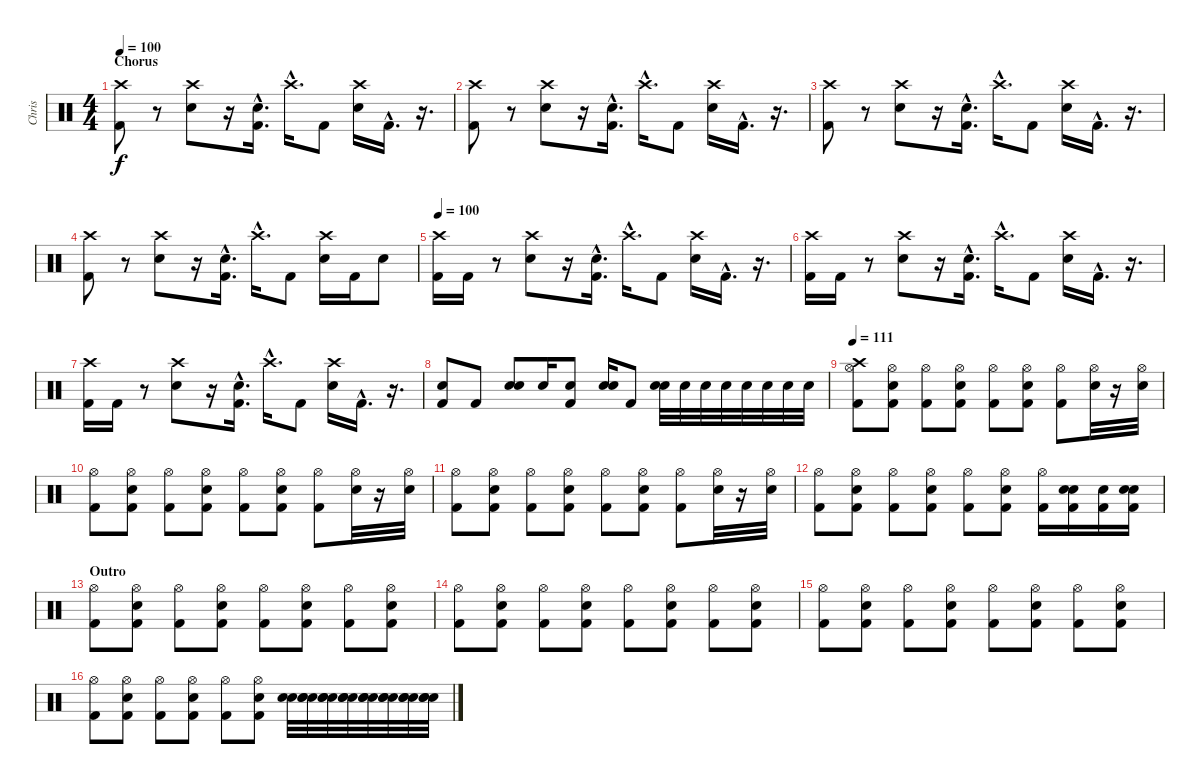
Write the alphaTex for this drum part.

\track ("Chris" "Chris") {instrument percussion}
\staff {score}
\articulation defaults
\ts (4 4)
\section ("" "Chorus")
\tempo 100
\clef neutral
\ks c
("Crash high (hit)" "Kick (hit) 2").8{dy f} r.8 ("Crash high (hit)" "Snare (hit) 2").8 r.16 ("Snare (hit)"{hac} "Kick (hit) 2"{hac}).16{d} "Crash high (hit)"{hac}.16{d} "Kick (hit) 2".8 ("Crash high (hit)" "Snare (hit) 2").16 "Kick (hit) 2"{hac}.16{d} r.16{d} |
("Crash high (hit)" "Kick (hit) 2").8 r.8 ("Crash high (hit)" "Snare (hit) 2").8 r.16 ("Snare (hit)"{hac} "Kick (hit) 2"{hac}).16{d} "Crash high (hit)"{hac}.16{d} "Kick (hit) 2".8 ("Crash high (hit)" "Snare (hit) 2").16 "Kick (hit) 2"{hac}.16{d} r.16{d} |
("Crash high (hit)" "Kick (hit) 2").8 r.8 ("Crash high (hit)" "Snare (hit) 2").8 r.16 ("Snare (hit)"{hac} "Kick (hit) 2"{hac}).16{d} "Crash high (hit)"{hac}.16{d} "Kick (hit) 2".8 ("Crash high (hit)" "Snare (hit) 2").16 "Kick (hit) 2"{hac}.16{d} r.16{d} |
("Crash high (hit)" "Kick (hit) 2").8 r.8 ("Crash high (hit)" "Snare (hit) 2").8 r.16 ("Snare (hit)"{hac} "Kick (hit) 2"{hac}).16{d} "Crash high (hit)"{hac}.16{d} "Kick (hit) 2".8 ("Crash high (hit)" "Snare (hit) 2").16 "Kick (hit) 2".16 "Snare (hit) 2".8 |
\tempo 100
("Crash high (hit)" "Kick (hit) 2").16 "Kick (hit) 2".16 r.8 ("Crash high (hit)" "Snare (hit) 2").8 r.16 ("Snare (hit)"{hac} "Kick (hit) 2"{hac}).16{d} "Crash high (hit)"{hac}.16{d} "Kick (hit) 2".8 ("Crash high (hit)" "Snare (hit) 2").16 "Kick (hit) 2"{hac}.16{d} r.16{d} |
("Crash high (hit)" "Kick (hit) 2").16 "Kick (hit) 2".16 r.8 ("Crash high (hit)" "Snare (hit) 2").8 r.16 ("Snare (hit)"{hac} "Kick (hit) 2"{hac}).16{d} "Crash high (hit)"{hac}.16{d} "Kick (hit) 2".8 ("Crash high (hit)" "Snare (hit) 2").16 "Kick (hit) 2"{hac}.16{d} r.16{d} |
("Crash high (hit)" "Kick (hit) 2").16 "Kick (hit) 2".16 r.8 ("Crash high (hit)" "Snare (hit) 2").8 r.16 ("Snare (hit)"{hac} "Kick (hit) 2"{hac}).16{d} "Crash high (hit)"{hac}.16{d} "Kick (hit) 2".8 ("Crash high (hit)" "Snare (hit) 2").16 "Kick (hit) 2"{hac}.16{d} r.16{d} |
("Snare (hit)" "Kick (hit) 2").8 "Kick (hit) 2".8 ("Snare (hit)" "Snare (hit) 2").8 "Snare (hit) 2".16 ("Snare (hit)" "Kick (hit) 2").8 ("Snare (hit)" "Snare (hit) 2").16 "Kick (hit) 2".8 ("Snare (hit)" "Snare (hit) 2").32 "Snare (hit) 2".32 "Snare (hit) 2".32 "Snare (hit) 2".32 "Snare (hit) 2".32 "Snare (hit) 2".32 "Snare (hit) 2".32 "Snare (hit) 2".32 |
\tempo 111
("Hi-Hat (open)" "Crash high (hit)" "Kick (hit) 2").8 ("Hi-Hat (open)" "Snare (hit) 2" "Kick (hit) 2").8 ("Hi-Hat (open)" "Kick (hit) 2").8 ("Hi-Hat (open)" "Snare (hit) 2" "Kick (hit) 2").8 ("Hi-Hat (open)" "Kick (hit) 2").8 ("Hi-Hat (open)" "Snare (hit) 2" "Kick (hit) 2").8 ("Hi-Hat (open)" "Kick (hit) 2").8 ("Hi-Hat (open)" "Snare (hit) 2").32 r.16 ("Hi-Hat (open)" "Snare (hit) 2").32 |
("Hi-Hat (open)" "Kick (hit) 2").8 ("Hi-Hat (open)" "Snare (hit) 2" "Kick (hit) 2").8 ("Hi-Hat (open)" "Kick (hit) 2").8 ("Hi-Hat (open)" "Snare (hit) 2" "Kick (hit) 2").8 ("Hi-Hat (open)" "Kick (hit) 2").8 ("Hi-Hat (open)" "Snare (hit) 2" "Kick (hit) 2").8 ("Hi-Hat (open)" "Kick (hit) 2").8 ("Hi-Hat (open)" "Snare (hit) 2").32 r.16 ("Hi-Hat (open)" "Snare (hit) 2").32 |
("Hi-Hat (open)" "Kick (hit) 2").8 ("Hi-Hat (open)" "Snare (hit) 2" "Kick (hit) 2").8 ("Hi-Hat (open)" "Kick (hit) 2").8 ("Hi-Hat (open)" "Snare (hit) 2" "Kick (hit) 2").8 ("Hi-Hat (open)" "Kick (hit) 2").8 ("Hi-Hat (open)" "Snare (hit) 2" "Kick (hit) 2").8 ("Hi-Hat (open)" "Kick (hit) 2").8 ("Hi-Hat (open)" "Snare (hit) 2").32 r.16 ("Hi-Hat (open)" "Snare (hit) 2").32 |
("Hi-Hat (open)" "Kick (hit) 2").8 ("Hi-Hat (open)" "Snare (hit) 2" "Kick (hit) 2").8 ("Hi-Hat (open)" "Kick (hit) 2").8 ("Hi-Hat (open)" "Snare (hit) 2" "Kick (hit) 2").8 ("Hi-Hat (open)" "Kick (hit) 2").8 ("Hi-Hat (open)" "Snare (hit) 2" "Kick (hit) 2").8 ("Hi-Hat (open)" "Kick (hit) 2").16 ("Snare (hit)" "Snare (hit) 2" "Kick (hit) 2").16 ("Snare (hit)" "Kick (hit) 2").16 ("Snare (hit)" "Snare (hit) 2" "Kick (hit) 2").16 |
\section ("" "Outro")
("Hi-Hat (open)" "Kick (hit) 2").8 ("Hi-Hat (open)" "Snare (hit) 2" "Kick (hit) 2").8 ("Hi-Hat (open)" "Kick (hit) 2").8 ("Hi-Hat (open)" "Snare (hit) 2" "Kick (hit) 2").8 ("Hi-Hat (open)" "Kick (hit) 2").8 ("Hi-Hat (open)" "Snare (hit) 2" "Kick (hit) 2").8 ("Hi-Hat (open)" "Kick (hit) 2").8 ("Hi-Hat (open)" "Snare (hit) 2" "Kick (hit) 2").8 |
("Hi-Hat (open)" "Kick (hit) 2").8 ("Hi-Hat (open)" "Snare (hit) 2" "Kick (hit) 2").8 ("Hi-Hat (open)" "Kick (hit) 2").8 ("Hi-Hat (open)" "Snare (hit) 2" "Kick (hit) 2").8 ("Hi-Hat (open)" "Kick (hit) 2").8 ("Hi-Hat (open)" "Snare (hit) 2" "Kick (hit) 2").8 ("Hi-Hat (open)" "Kick (hit) 2").8 ("Hi-Hat (open)" "Snare (hit) 2" "Kick (hit) 2").8 |
("Hi-Hat (open)" "Kick (hit) 2").8 ("Hi-Hat (open)" "Snare (hit) 2" "Kick (hit) 2").8 ("Hi-Hat (open)" "Kick (hit) 2").8 ("Hi-Hat (open)" "Snare (hit) 2" "Kick (hit) 2").8 ("Hi-Hat (open)" "Kick (hit) 2").8 ("Hi-Hat (open)" "Snare (hit) 2" "Kick (hit) 2").8 ("Hi-Hat (open)" "Kick (hit) 2").8 ("Hi-Hat (open)" "Snare (hit) 2" "Kick (hit) 2").8 |
("Hi-Hat (open)" "Kick (hit) 2").8 ("Hi-Hat (open)" "Snare (hit) 2" "Kick (hit) 2").8 ("Hi-Hat (open)" "Kick (hit) 2").8 ("Hi-Hat (open)" "Snare (hit) 2" "Kick (hit) 2").8 ("Hi-Hat (open)" "Kick (hit) 2").8 ("Hi-Hat (open)" "Snare (hit) 2" "Kick (hit) 2").8 ("Snare (hit)" "Snare (hit) 2").32 ("Snare (hit)" "Snare (hit)" "Snare (hit) 2").32 ("Snare (hit)" "Snare (hit)" "Snare (hit) 2").32 ("Snare (hit)" "Snare (hit)" "Snare (hit) 2").32 ("Snare (hit)" "Snare (hit)" "Snare (hit) 2").32 ("Snare (hit)" "Snare (hit)" "Snare (hit) 2").32 ("Snare (hit)" "Snare (hit)" "Snare (hit) 2").32 ("Snare (hit)" "Snare (hit)" "Snare (hit) 2").32
